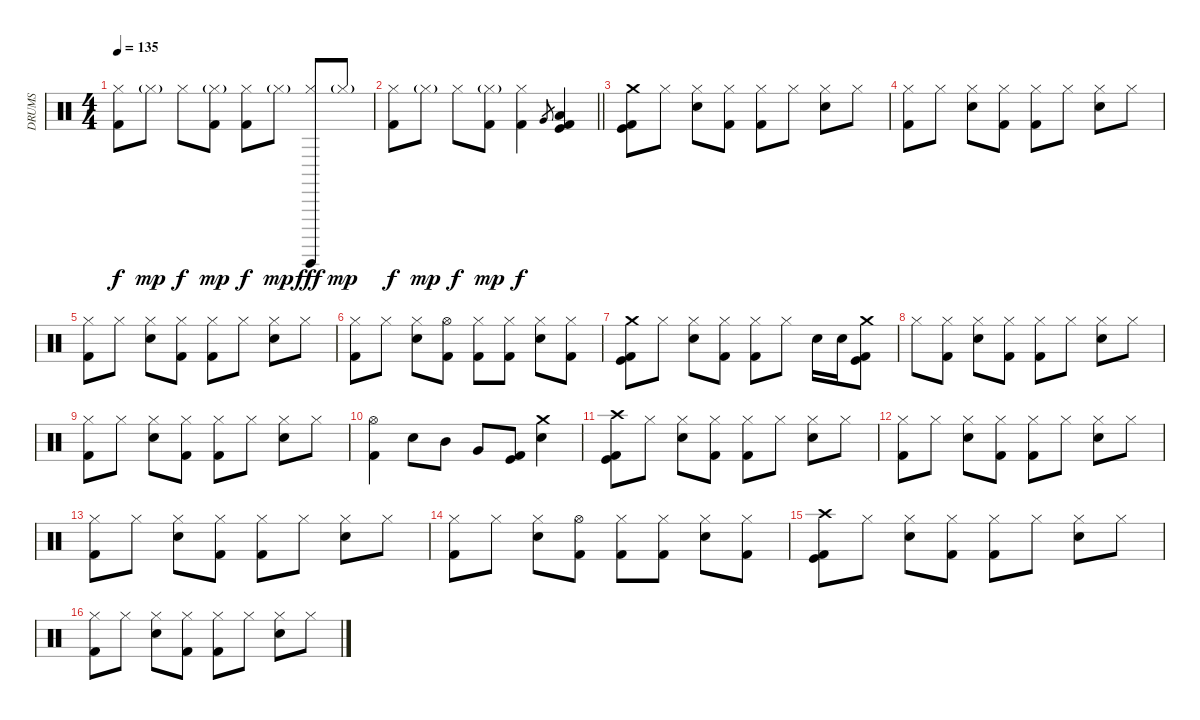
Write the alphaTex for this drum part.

\track ("DRUMS" "DRUMS") {instrument percussion}
\staff {score}
\articulation defaults
\ts (4 4)
\tempo 135
\clef neutral
\ks c
("Hi-Hat (closed)" "Kick (hit) 2").8{dy f} "Hi-Hat (closed)"{g}.8{dy mp} "Hi-Hat (closed)".8{dy f} ("Hi-Hat (closed)"{g} "Kick (hit) 2").8{dy mp} ("Hi-Hat (closed)" "Kick (hit) 2").8{dy f} "Hi-Hat (closed)"{g}.8{dy mp} ("Hi-Hat (closed)" "Guiro (hit)").8{dy fff} "Hi-Hat (closed)"{g}.8{dy mp} |
\barLineRight lightlight
("Hi-Hat (closed)" "Kick (hit) 2").8{dy f} "Hi-Hat (closed)"{g}.8{dy mp} "Hi-Hat (closed)".8{dy f} ("Hi-Hat (closed)"{g} "Kick (hit) 2").8{dy mp} ("Hi-Hat (closed)" "Kick (hit) 2").4{dy f} "Very Low Tom (hit)".8{gr} ("Low Floor Tom (hit)" "Kick (hit)" "Kick (hit) 2").4{volume 10} |
("Crash medium (hit)" "Kick (hit) 2" "Kick (hit)").8 "Hi-Hat (closed)".8 ("Hi-Hat (closed)" "Electric Snare (hit)").8 ("Hi-Hat (closed)" "Kick (hit) 2").8 ("Hi-Hat (closed)" "Kick (hit) 2").8 "Hi-Hat (closed)".8 ("Hi-Hat (closed)" "Electric Snare (hit)").8 "Hi-Hat (closed)".8 |
("Hi-Hat (closed)" "Kick (hit) 2").8 "Hi-Hat (closed)".8 ("Hi-Hat (closed)" "Electric Snare (hit)").8 ("Hi-Hat (closed)" "Kick (hit) 2").8 ("Hi-Hat (closed)" "Kick (hit) 2").8 "Hi-Hat (closed)".8 ("Hi-Hat (closed)" "Electric Snare (hit)").8 "Hi-Hat (closed)".8 |
("Hi-Hat (closed)" "Kick (hit) 2").8 "Hi-Hat (closed)".8 ("Hi-Hat (closed)" "Electric Snare (hit)").8 ("Hi-Hat (closed)" "Kick (hit) 2").8 ("Hi-Hat (closed)" "Kick (hit) 2").8 "Hi-Hat (closed)".8 ("Hi-Hat (closed)" "Electric Snare (hit)").8 "Hi-Hat (closed)".8 |
("Hi-Hat (closed)" "Kick (hit) 2").8 "Hi-Hat (closed)".8 ("Hi-Hat (closed)" "Electric Snare (hit)").8 ("Hi-Hat (open)" "Kick (hit) 2").8 ("Hi-Hat (closed)" "Kick (hit) 2").8 ("Hi-Hat (closed)" "Kick (hit) 2").8 ("Hi-Hat (closed)" "Electric Snare (hit)").8 ("Hi-Hat (closed)" "Kick (hit) 2").8 |
("Crash medium (hit)" "Kick (hit) 2" "Kick (hit)").8 "Hi-Hat (closed)".8 ("Hi-Hat (closed)" "Electric Snare (hit)").8 ("Hi-Hat (closed)" "Kick (hit) 2").8 ("Hi-Hat (closed)" "Kick (hit) 2").8 "Hi-Hat (closed)".8 "Electric Snare (hit)".16 "Electric Snare (hit)".16 ("Crash medium (hit)" "Kick (hit) 2" "Kick (hit)").8 |
"Hi-Hat (closed)".8 ("Hi-Hat (closed)" "Kick (hit) 2").8 ("Hi-Hat (closed)" "Electric Snare (hit)").8 ("Hi-Hat (closed)" "Kick (hit) 2").8 ("Hi-Hat (closed)" "Kick (hit) 2").8 "Hi-Hat (closed)".8 ("Hi-Hat (closed)" "Electric Snare (hit)").8 "Hi-Hat (closed)".8 |
("Hi-Hat (closed)" "Kick (hit) 2").8 "Hi-Hat (closed)".8 ("Hi-Hat (closed)" "Electric Snare (hit)").8 ("Hi-Hat (closed)" "Kick (hit) 2").8 ("Hi-Hat (closed)" "Kick (hit) 2").8 "Hi-Hat (closed)".8 ("Hi-Hat (closed)" "Electric Snare (hit)").8 "Hi-Hat (closed)".8 |
("Hi-Hat (open)" "Kick (hit) 2").4 "Electric Snare (hit)".8 "Mid Tom (hit)".8 "Very Low Tom (hit)".8 ("Kick (hit) 2" "Kick (hit)").8 ("Crash medium (hit)" "Electric Snare (hit)").4 |
("Crash high (hit)" "Kick (hit) 2" "Kick (hit)").8 "Hi-Hat (closed)".8 ("Hi-Hat (closed)" "Electric Snare (hit)").8 ("Hi-Hat (closed)" "Kick (hit) 2").8 ("Hi-Hat (closed)" "Kick (hit) 2").8 "Hi-Hat (closed)".8 ("Hi-Hat (closed)" "Electric Snare (hit)").8 "Hi-Hat (closed)".8 |
("Hi-Hat (closed)" "Kick (hit) 2").8 "Hi-Hat (closed)".8 ("Hi-Hat (closed)" "Electric Snare (hit)").8 ("Hi-Hat (closed)" "Kick (hit) 2").8 ("Hi-Hat (closed)" "Kick (hit) 2").8 "Hi-Hat (closed)".8 ("Hi-Hat (closed)" "Electric Snare (hit)").8 "Hi-Hat (closed)".8 |
("Hi-Hat (closed)" "Kick (hit) 2").8 "Hi-Hat (closed)".8 ("Hi-Hat (closed)" "Electric Snare (hit)").8 ("Hi-Hat (closed)" "Kick (hit) 2").8 ("Hi-Hat (closed)" "Kick (hit) 2").8 "Hi-Hat (closed)".8 ("Hi-Hat (closed)" "Electric Snare (hit)").8 "Hi-Hat (closed)".8 |
("Hi-Hat (closed)" "Kick (hit) 2").8 "Hi-Hat (closed)".8 ("Hi-Hat (closed)" "Electric Snare (hit)").8 ("Hi-Hat (open)" "Kick (hit) 2").8 ("Hi-Hat (closed)" "Kick (hit) 2").8 ("Hi-Hat (closed)" "Kick (hit) 2").8 ("Hi-Hat (closed)" "Electric Snare (hit)").8 ("Hi-Hat (closed)" "Kick (hit) 2").8 |
("Crash high (hit)" "Kick (hit) 2" "Kick (hit)").8 "Hi-Hat (closed)".8 ("Hi-Hat (closed)" "Electric Snare (hit)").8 ("Hi-Hat (closed)" "Kick (hit) 2").8 ("Hi-Hat (closed)" "Kick (hit) 2").8 "Hi-Hat (closed)".8 ("Hi-Hat (closed)" "Electric Snare (hit)").8 "Hi-Hat (closed)".8 |
("Hi-Hat (closed)" "Kick (hit) 2").8 "Hi-Hat (closed)".8 ("Hi-Hat (closed)" "Electric Snare (hit)").8 ("Hi-Hat (closed)" "Kick (hit) 2").8 ("Hi-Hat (closed)" "Kick (hit) 2").8 "Hi-Hat (closed)".8 ("Hi-Hat (closed)" "Electric Snare (hit)").8 "Hi-Hat (closed)".8
